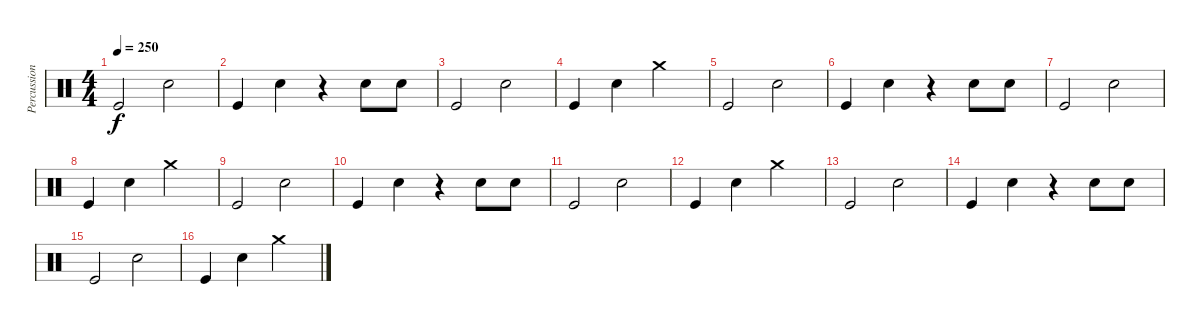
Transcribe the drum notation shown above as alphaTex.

\track ("Percussion" "Percussion") {instrument percussion}
\staff {score}
\articulation defaults
\ts (4 4)
\tempo 250
\clef neutral
\ks c "Kick (hit)".2{dy f} "Electric Snare (hit)".2
|
"Kick (hit)".4 "Electric Snare (hit)".4 r.4 "Electric Snare (hit)".8 "Electric Snare (hit)".8 |
"Kick (hit)".2 "Electric Snare (hit)".2 |
"Kick (hit)".4 "Electric Snare (hit)".4 "Crash medium (hit)".2 |
"Kick (hit)".2 "Electric Snare (hit)".2 |
"Kick (hit)".4 "Electric Snare (hit)".4 r.4 "Electric Snare (hit)".8 "Electric Snare (hit)".8 |
"Kick (hit)".2 "Electric Snare (hit)".2 |
"Kick (hit)".4 "Electric Snare (hit)".4 "Crash medium (hit)".2 |
"Kick (hit)".2 "Electric Snare (hit)".2 |
"Kick (hit)".4 "Electric Snare (hit)".4 r.4 "Electric Snare (hit)".8 "Electric Snare (hit)".8 |
"Kick (hit)".2 "Electric Snare (hit)".2 |
"Kick (hit)".4 "Electric Snare (hit)".4 "Crash medium (hit)".2 |
"Kick (hit)".2 "Electric Snare (hit)".2 |
"Kick (hit)".4 "Electric Snare (hit)".4 r.4 "Electric Snare (hit)".8 "Electric Snare (hit)".8 |
"Kick (hit)".2 "Electric Snare (hit)".2 |
"Kick (hit)".4 "Electric Snare (hit)".4 "Crash medium (hit)".2
